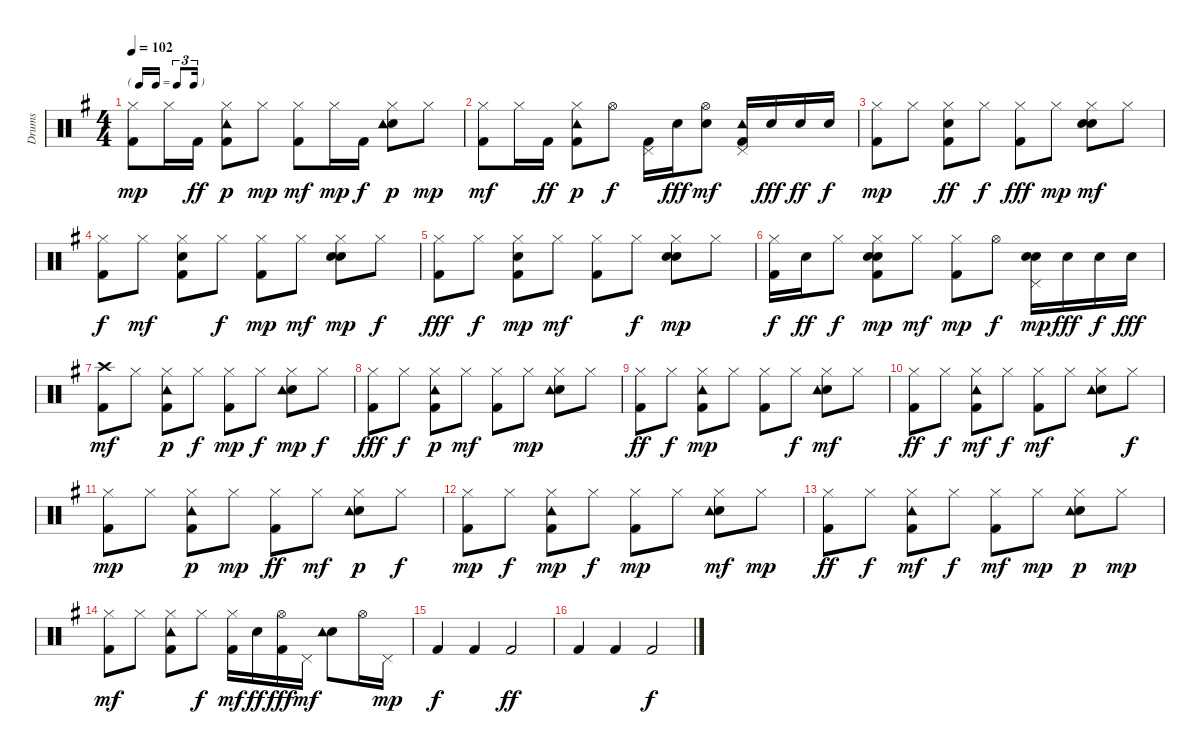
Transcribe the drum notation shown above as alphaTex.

\track ("Drums" "Drums") {instrument percussion}
\staff {score}
\articulation defaults
\ts (4 4)
\tf triplet16th
\tempo 102
\clef neutral
\ks g
("Kick (hit) 2" "Hi-Hat (closed)").8{dy mp} "Hi-Hat (closed)".16 "Kick (hit) 2".16{dy ff} ("Kick (hit) 2" "Hi-Hat (closed)" "Tambourine (hit)").8{dy p} "Hi-Hat (closed)".8{dy mp} ("Kick (hit) 2" "Hi-Hat (closed)").8{dy mf} "Hi-Hat (closed)".16{dy mp} "Kick (hit) 2".16{dy f} ("Snare (hit) 2" "Hi-Hat (closed)" "Tambourine (hit)").8{dy p} "Hi-Hat (closed)".8{dy mp} |
("Kick (hit) 2" "Hi-Hat (closed)").8{dy mf} "Hi-Hat (closed)".16 "Kick (hit) 2".16{dy ff} ("Kick (hit) 2" "Hi-Hat (closed)" "Tambourine (hit)").8{dy p} "Hi-Hat (open)".8{dy f} ("Kick (hit) 2" "Pedal Hi-Hat (hit)").16 "Snare (hit) 2".16{dy fff} ("Snare (hit) 2" "Hi-Hat (open)").8{dy mf} ("Kick (hit) 2" "Pedal Hi-Hat (hit)" "Tambourine (hit)").16 "Snare (hit) 2".16{dy fff} "Snare (hit) 2".16{dy ff} "Snare (hit) 2".16{dy f} |
("Kick (hit) 2" "Hi-Hat (closed)").8{dy mp} "Hi-Hat (closed)".8 ("Kick (hit) 2" "Hand Clap (hit)" "Hi-Hat (closed)").8{dy ff} "Hi-Hat (closed)".8{dy f} ("Kick (hit) 2" "Hi-Hat (closed)").8{dy fff} "Hi-Hat (closed)".8{dy mp} ("Hand Clap (hit)" "Snare (hit) 2" "Hi-Hat (closed)").8{dy mf} "Hi-Hat (closed)".8 |
("Kick (hit) 2" "Hi-Hat (closed)").8{dy f} "Hi-Hat (closed)".8{dy mf} ("Kick (hit) 2" "Hand Clap (hit)" "Hi-Hat (closed)").8 "Hi-Hat (closed)".8{dy f} ("Kick (hit) 2" "Hi-Hat (closed)").8{dy mp} "Hi-Hat (closed)".8{dy mf} ("Hand Clap (hit)" "Snare (hit) 2" "Hi-Hat (closed)").8{dy mp} "Hi-Hat (closed)".8{dy f} |
("Kick (hit) 2" "Hi-Hat (closed)").8{dy fff} "Hi-Hat (closed)".8{dy f} ("Kick (hit) 2" "Hand Clap (hit)" "Hi-Hat (closed)").8{dy mp} "Hi-Hat (closed)".8{dy mf} ("Kick (hit) 2" "Hi-Hat (closed)").8 "Hi-Hat (closed)".8{dy f} ("Hand Clap (hit)" "Snare (hit) 2" "Hi-Hat (closed)").8{dy mp} "Hi-Hat (closed)".8 |
("Kick (hit) 2" "Hi-Hat (closed)").16{dy f} "Snare (hit) 2".16{dy ff} "Hi-Hat (closed)".8{dy f} ("Kick (hit) 2" "Hand Clap (hit)" "Snare (hit) 2" "Hi-Hat (closed)").8{dy mp} "Hi-Hat (closed)".8{dy mf} ("Kick (hit) 2" "Hi-Hat (closed)").8{dy mp} "Hi-Hat (open)".8{dy f} ("Hand Clap (hit)" "Snare (hit) 2" "Pedal Hi-Hat (hit)").16{dy mp} "Snare (hit) 2".16{dy fff} "Snare (hit) 2".16{dy f} "Snare (hit) 2".16{dy fff} |
("Kick (hit) 2" "Crash high (hit)").8{dy mf} "Hi-Hat (closed)".8 ("Kick (hit) 2" "Hi-Hat (closed)" "Tambourine (hit)").8{dy p} "Hi-Hat (closed)".8{dy f} ("Kick (hit) 2" "Hi-Hat (closed)").8{dy mp} "Hi-Hat (closed)".8{dy f} ("Snare (hit) 2" "Hi-Hat (closed)" "Tambourine (hit)").8{dy mp} "Hi-Hat (closed)".8{dy f} |
("Kick (hit) 2" "Hi-Hat (closed)").8{dy fff} "Hi-Hat (closed)".8{dy f} ("Kick (hit) 2" "Hi-Hat (closed)" "Tambourine (hit)").8{dy p} "Hi-Hat (closed)".8{dy mf} ("Kick (hit) 2" "Hi-Hat (closed)").8 "Hi-Hat (closed)".8{dy mp} ("Snare (hit) 2" "Hi-Hat (closed)" "Tambourine (hit)").8 "Hi-Hat (closed)".8 |
("Kick (hit) 2" "Hi-Hat (closed)").8{dy ff} "Hi-Hat (closed)".8{dy f} ("Kick (hit) 2" "Hi-Hat (closed)" "Tambourine (hit)").8{dy mp} "Hi-Hat (closed)".8 ("Kick (hit) 2" "Hi-Hat (closed)").8 "Hi-Hat (closed)".8{dy f} ("Snare (hit) 2" "Hi-Hat (closed)" "Tambourine (hit)").8{dy mf} "Hi-Hat (closed)".8 |
("Kick (hit) 2" "Hi-Hat (closed)").8{dy ff} "Hi-Hat (closed)".8{dy f} ("Kick (hit) 2" "Hi-Hat (closed)" "Tambourine (hit)").8{dy mf} "Hi-Hat (closed)".8{dy f} ("Kick (hit) 2" "Hi-Hat (closed)").8{dy mf} "Hi-Hat (closed)".8 ("Snare (hit) 2" "Hi-Hat (closed)" "Tambourine (hit)").8 "Hi-Hat (closed)".8{dy f} |
("Kick (hit) 2" "Hi-Hat (closed)").8{dy mp} "Hi-Hat (closed)".8 ("Kick (hit) 2" "Hi-Hat (closed)" "Tambourine (hit)").8{dy p} "Hi-Hat (closed)".8{dy mp} ("Kick (hit) 2" "Hi-Hat (closed)").8{dy ff} "Hi-Hat (closed)".8{dy mf} ("Snare (hit) 2" "Hi-Hat (closed)" "Tambourine (hit)").8{dy p} "Hi-Hat (closed)".8{dy f} |
("Kick (hit) 2" "Hi-Hat (closed)").8{dy mp} "Hi-Hat (closed)".8{dy f} ("Kick (hit) 2" "Hi-Hat (closed)" "Tambourine (hit)").8{dy mp} "Hi-Hat (closed)".8{dy f} ("Kick (hit) 2" "Hi-Hat (closed)").8{dy mp} "Hi-Hat (closed)".8 ("Snare (hit) 2" "Hi-Hat (closed)" "Tambourine (hit)").8{dy mf} "Hi-Hat (closed)".8{dy mp} |
("Kick (hit) 2" "Hi-Hat (closed)").8{dy ff} "Hi-Hat (closed)".8{dy f} ("Kick (hit) 2" "Hi-Hat (closed)" "Tambourine (hit)").8{dy mf} "Hi-Hat (closed)".8{dy f} ("Kick (hit) 2" "Hi-Hat (closed)").8{dy mf} "Hi-Hat (closed)".8{dy mp} ("Snare (hit) 2" "Hi-Hat (closed)" "Tambourine (hit)").8{dy p} "Hi-Hat (closed)".8{dy mp} |
("Kick (hit) 2" "Hi-Hat (closed)").8{dy mf} "Hi-Hat (closed)".8 ("Kick (hit) 2" "Hi-Hat (closed)" "Tambourine (hit)").8 "Hi-Hat (closed)".8{dy f} ("Kick (hit) 2" "Hi-Hat (closed)").16{dy mf} "Snare (hit) 2".16{dy ff} ("Kick (hit) 2" "Hi-Hat (open)").16{dy fff} "Pedal Hi-Hat (hit)".16{dy mf} ("Snare (hit) 2" "Tambourine (hit)").8 "Hi-Hat (open)".16 "Pedal Hi-Hat (hit)".16{dy mp} |
"Kick (hit) 2".4{dy f} "Kick (hit) 2".4 "Kick (hit) 2".2{dy ff} |
"Kick (hit) 2".4 "Kick (hit) 2".4 "Kick (hit) 2".2{dy f}
